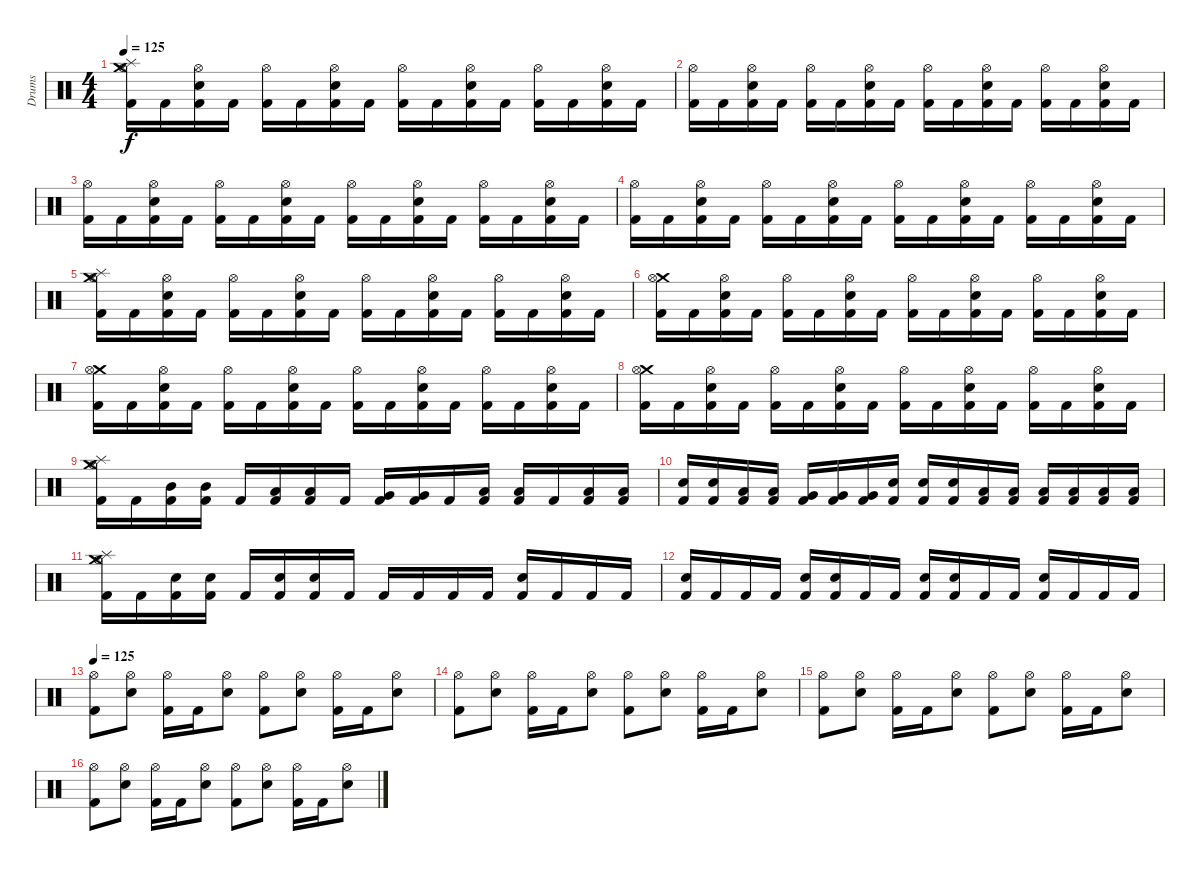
\track ("Drums" "Drums") {instrument percussion}
\staff {score}
\articulation defaults
\ts (4 4)
\tempo 120
\tempo 125
\clef neutral
\ks c
("Hi-Hat (open)" "Splash (hit)" "Crash medium (hit)" "Kick (hit) 2").16{dy f} "Kick (hit) 2".16 ("Hi-Hat (open)" "Electric Snare (hit)" "Kick (hit) 2").16 "Kick (hit) 2".16 ("Hi-Hat (open)" "Kick (hit) 2").16 "Kick (hit) 2".16 ("Hi-Hat (open)" "Electric Snare (hit)" "Kick (hit) 2").16 "Kick (hit) 2".16 ("Hi-Hat (open)" "Kick (hit) 2").16 "Kick (hit) 2".16 ("Hi-Hat (open)" "Electric Snare (hit)" "Kick (hit) 2").16 "Kick (hit) 2".16 ("Hi-Hat (open)" "Kick (hit) 2").16 "Kick (hit) 2".16 ("Hi-Hat (open)" "Electric Snare (hit)" "Kick (hit) 2").16 "Kick (hit) 2".16 |
("Hi-Hat (open)" "Kick (hit) 2").16 "Kick (hit) 2".16 ("Hi-Hat (open)" "Electric Snare (hit)" "Kick (hit) 2").16 "Kick (hit) 2".16 ("Hi-Hat (open)" "Kick (hit) 2").16 "Kick (hit) 2".16 ("Hi-Hat (open)" "Electric Snare (hit)" "Kick (hit) 2").16 "Kick (hit) 2".16 ("Hi-Hat (open)" "Kick (hit) 2").16 "Kick (hit) 2".16 ("Hi-Hat (open)" "Electric Snare (hit)" "Kick (hit) 2").16 "Kick (hit) 2".16 ("Hi-Hat (open)" "Kick (hit) 2").16 "Kick (hit) 2".16 ("Hi-Hat (open)" "Electric Snare (hit)" "Kick (hit) 2").16 "Kick (hit) 2".16 |
("Hi-Hat (open)" "Kick (hit) 2").16 "Kick (hit) 2".16 ("Hi-Hat (open)" "Electric Snare (hit)" "Kick (hit) 2").16 "Kick (hit) 2".16 ("Hi-Hat (open)" "Kick (hit) 2").16 "Kick (hit) 2".16 ("Hi-Hat (open)" "Electric Snare (hit)" "Kick (hit) 2").16 "Kick (hit) 2".16 ("Hi-Hat (open)" "Kick (hit) 2").16 "Kick (hit) 2".16 ("Hi-Hat (open)" "Electric Snare (hit)" "Kick (hit) 2").16 "Kick (hit) 2".16 ("Hi-Hat (open)" "Kick (hit) 2").16 "Kick (hit) 2".16 ("Hi-Hat (open)" "Electric Snare (hit)" "Kick (hit) 2").16 "Kick (hit) 2".16 |
("Hi-Hat (open)" "Kick (hit) 2").16 "Kick (hit) 2".16 ("Hi-Hat (open)" "Electric Snare (hit)" "Kick (hit) 2").16 "Kick (hit) 2".16 ("Hi-Hat (open)" "Kick (hit) 2").16 "Kick (hit) 2".16 ("Hi-Hat (open)" "Electric Snare (hit)" "Kick (hit) 2").16 "Kick (hit) 2".16 ("Hi-Hat (open)" "Kick (hit) 2").16 "Kick (hit) 2".16 ("Hi-Hat (open)" "Electric Snare (hit)" "Kick (hit) 2").16 "Kick (hit) 2".16 ("Hi-Hat (open)" "Kick (hit) 2").16 "Kick (hit) 2".16 ("Hi-Hat (open)" "Electric Snare (hit)" "Kick (hit) 2").16 "Kick (hit) 2".16 |
("Hi-Hat (open)" "Splash (hit)" "Crash medium (hit)" "Kick (hit) 2").16 "Kick (hit) 2".16 ("Hi-Hat (open)" "Electric Snare (hit)" "Kick (hit) 2").16 "Kick (hit) 2".16 ("Hi-Hat (open)" "Kick (hit) 2").16 "Kick (hit) 2".16 ("Hi-Hat (open)" "Electric Snare (hit)" "Kick (hit) 2").16 "Kick (hit) 2".16 ("Hi-Hat (open)" "Kick (hit) 2").16 "Kick (hit) 2".16 ("Hi-Hat (open)" "Electric Snare (hit)" "Kick (hit) 2").16 "Kick (hit) 2".16 ("Hi-Hat (open)" "Kick (hit) 2").16 "Kick (hit) 2".16 ("Hi-Hat (open)" "Electric Snare (hit)" "Kick (hit) 2").16 "Kick (hit) 2".16 |
("Crash medium (hit)" "Hi-Hat (open)" "Kick (hit) 2").16 "Kick (hit) 2".16 ("Hi-Hat (open)" "Electric Snare (hit)" "Kick (hit) 2").16 "Kick (hit) 2".16 ("Hi-Hat (open)" "Kick (hit) 2").16 "Kick (hit) 2".16 ("Hi-Hat (open)" "Electric Snare (hit)" "Kick (hit) 2").16 "Kick (hit) 2".16 ("Hi-Hat (open)" "Kick (hit) 2").16 "Kick (hit) 2".16 ("Hi-Hat (open)" "Electric Snare (hit)" "Kick (hit) 2").16 "Kick (hit) 2".16 ("Hi-Hat (open)" "Kick (hit) 2").16 "Kick (hit) 2".16 ("Hi-Hat (open)" "Electric Snare (hit)" "Kick (hit) 2").16 "Kick (hit) 2".16 |
("Crash medium (hit)" "Hi-Hat (open)" "Kick (hit) 2").16 "Kick (hit) 2".16 ("Hi-Hat (open)" "Electric Snare (hit)" "Kick (hit) 2").16 "Kick (hit) 2".16 ("Hi-Hat (open)" "Kick (hit) 2").16 "Kick (hit) 2".16 ("Hi-Hat (open)" "Electric Snare (hit)" "Kick (hit) 2").16 "Kick (hit) 2".16 ("Hi-Hat (open)" "Kick (hit) 2").16 "Kick (hit) 2".16 ("Hi-Hat (open)" "Electric Snare (hit)" "Kick (hit) 2").16 "Kick (hit) 2".16 ("Hi-Hat (open)" "Kick (hit) 2").16 "Kick (hit) 2".16 ("Hi-Hat (open)" "Electric Snare (hit)" "Kick (hit) 2").16 "Kick (hit) 2".16 |
("Crash medium (hit)" "Hi-Hat (open)" "Kick (hit) 2").16 "Kick (hit) 2".16 ("Hi-Hat (open)" "Electric Snare (hit)" "Kick (hit) 2").16 "Kick (hit) 2".16 ("Hi-Hat (open)" "Kick (hit) 2").16 "Kick (hit) 2".16 ("Hi-Hat (open)" "Electric Snare (hit)" "Kick (hit) 2").16 "Kick (hit) 2".16 ("Hi-Hat (open)" "Kick (hit) 2").16 "Kick (hit) 2".16 ("Hi-Hat (open)" "Electric Snare (hit)" "Kick (hit) 2").16 "Kick (hit) 2".16 ("Hi-Hat (open)" "Kick (hit) 2").16 "Kick (hit) 2".16 ("Hi-Hat (open)" "Electric Snare (hit)" "Kick (hit) 2").16 "Kick (hit) 2".16 |
("Splash (hit)" "Hi-Hat (open)" "Crash medium (hit)" "Kick (hit) 2").16 "Kick (hit) 2".16 ("Mid Tom (hit)" "Kick (hit) 2").16 ("Mid Tom (hit)" "Kick (hit) 2").16 "Kick (hit) 2".16 ("Low Tom (hit)" "Kick (hit) 2").16 ("Low Tom (hit)" "Kick (hit) 2").16 "Kick (hit) 2".16 ("Very Low Tom (hit)" "Kick (hit) 2").16 ("Very Low Tom (hit)" "Kick (hit) 2").16 "Kick (hit) 2".16 ("Low Floor Tom (hit)" "Kick (hit) 2").16 ("Low Floor Tom (hit)" "Kick (hit) 2").16 "Kick (hit) 2".16 ("Low Floor Tom (hit)" "Kick (hit) 2").16 ("Low Floor Tom (hit)" "Kick (hit) 2").16 |
("Electric Snare (hit)" "Kick (hit) 2").16 ("Electric Snare (hit)" "Kick (hit) 2").16 ("Low Tom (hit)" "Kick (hit) 2").16 ("Low Tom (hit)" "Kick (hit) 2").16 ("Very Low Tom (hit)" "Kick (hit) 2").16 ("Very Low Tom (hit)" "Kick (hit) 2").16 ("Very Low Tom (hit)" "Kick (hit) 2").16 ("Electric Snare (hit)" "Kick (hit) 2").16 ("Electric Snare (hit)" "Kick (hit) 2").16 ("Electric Snare (hit)" "Kick (hit) 2").16 ("Low Floor Tom (hit)" "Kick (hit) 2").16 ("Low Floor Tom (hit)" "Kick (hit) 2").16 ("Low Floor Tom (hit)" "Kick (hit) 2").16 ("Low Floor Tom (hit)" "Kick (hit) 2").16 ("Low Floor Tom (hit)" "Kick (hit) 2").16 ("Low Floor Tom (hit)" "Kick (hit) 2").16 |
("Splash (hit)" "Hi-Hat (open)" "Crash medium (hit)" "Kick (hit) 2").16 "Kick (hit) 2".16 ("Electric Snare (hit)" "Kick (hit) 2").16 ("Electric Snare (hit)" "Kick (hit) 2").16 "Kick (hit) 2".16 ("Electric Snare (hit)" "Kick (hit) 2").16 ("Electric Snare (hit)" "Kick (hit) 2").16 "Kick (hit) 2".16 "Kick (hit) 2".16 "Kick (hit) 2".16 "Kick (hit) 2".16 "Kick (hit) 2".16 ("Electric Snare (hit)" "Kick (hit) 2").16 "Kick (hit) 2".16 "Kick (hit) 2".16 "Kick (hit) 2".16 |
("Electric Snare (hit)" "Kick (hit) 2").16 "Kick (hit) 2".16 "Kick (hit) 2".16 "Kick (hit) 2".16 ("Electric Snare (hit)" "Kick (hit) 2").16 ("Electric Snare (hit)" "Kick (hit) 2").16 "Kick (hit) 2".16 "Kick (hit) 2".16 ("Electric Snare (hit)" "Kick (hit) 2").16 ("Electric Snare (hit)" "Kick (hit) 2").16 "Kick (hit) 2".16 "Kick (hit) 2".16 ("Electric Snare (hit)" "Kick (hit) 2").16 "Kick (hit) 2".16 "Kick (hit) 2".16 "Kick (hit) 2".16 |
\tempo 125
("Hi-Hat (open)" "Kick (hit) 2").8 ("Hi-Hat (open)" "Electric Snare (hit)").8 ("Hi-Hat (open)" "Kick (hit) 2").16 "Kick (hit) 2".16 ("Hi-Hat (open)" "Electric Snare (hit)").8 ("Hi-Hat (open)" "Kick (hit) 2").8 ("Hi-Hat (open)" "Electric Snare (hit)").8 ("Hi-Hat (open)" "Kick (hit) 2").16 "Kick (hit) 2".16 ("Hi-Hat (open)" "Electric Snare (hit)").8 |
("Hi-Hat (open)" "Kick (hit) 2").8 ("Hi-Hat (open)" "Electric Snare (hit)").8 ("Hi-Hat (open)" "Kick (hit) 2").16 "Kick (hit) 2".16 ("Hi-Hat (open)" "Electric Snare (hit)").8 ("Hi-Hat (open)" "Kick (hit) 2").8 ("Hi-Hat (open)" "Electric Snare (hit)").8 ("Hi-Hat (open)" "Kick (hit) 2").16 "Kick (hit) 2".16 ("Hi-Hat (open)" "Electric Snare (hit)").8 |
("Hi-Hat (open)" "Kick (hit) 2").8 ("Hi-Hat (open)" "Electric Snare (hit)").8 ("Hi-Hat (open)" "Kick (hit) 2").16 "Kick (hit) 2".16 ("Hi-Hat (open)" "Electric Snare (hit)").8 ("Hi-Hat (open)" "Kick (hit) 2").8 ("Hi-Hat (open)" "Electric Snare (hit)").8 ("Hi-Hat (open)" "Kick (hit) 2").16 "Kick (hit) 2".16 ("Hi-Hat (open)" "Electric Snare (hit)").8 |
("Hi-Hat (open)" "Kick (hit) 2").8 ("Hi-Hat (open)" "Electric Snare (hit)").8 ("Hi-Hat (open)" "Kick (hit) 2").16 "Kick (hit) 2".16 ("Hi-Hat (open)" "Electric Snare (hit)").8 ("Hi-Hat (open)" "Kick (hit) 2").8 ("Hi-Hat (open)" "Electric Snare (hit)").8 ("Hi-Hat (open)" "Kick (hit) 2").16 "Kick (hit) 2".16 ("Hi-Hat (open)" "Electric Snare (hit)").8
